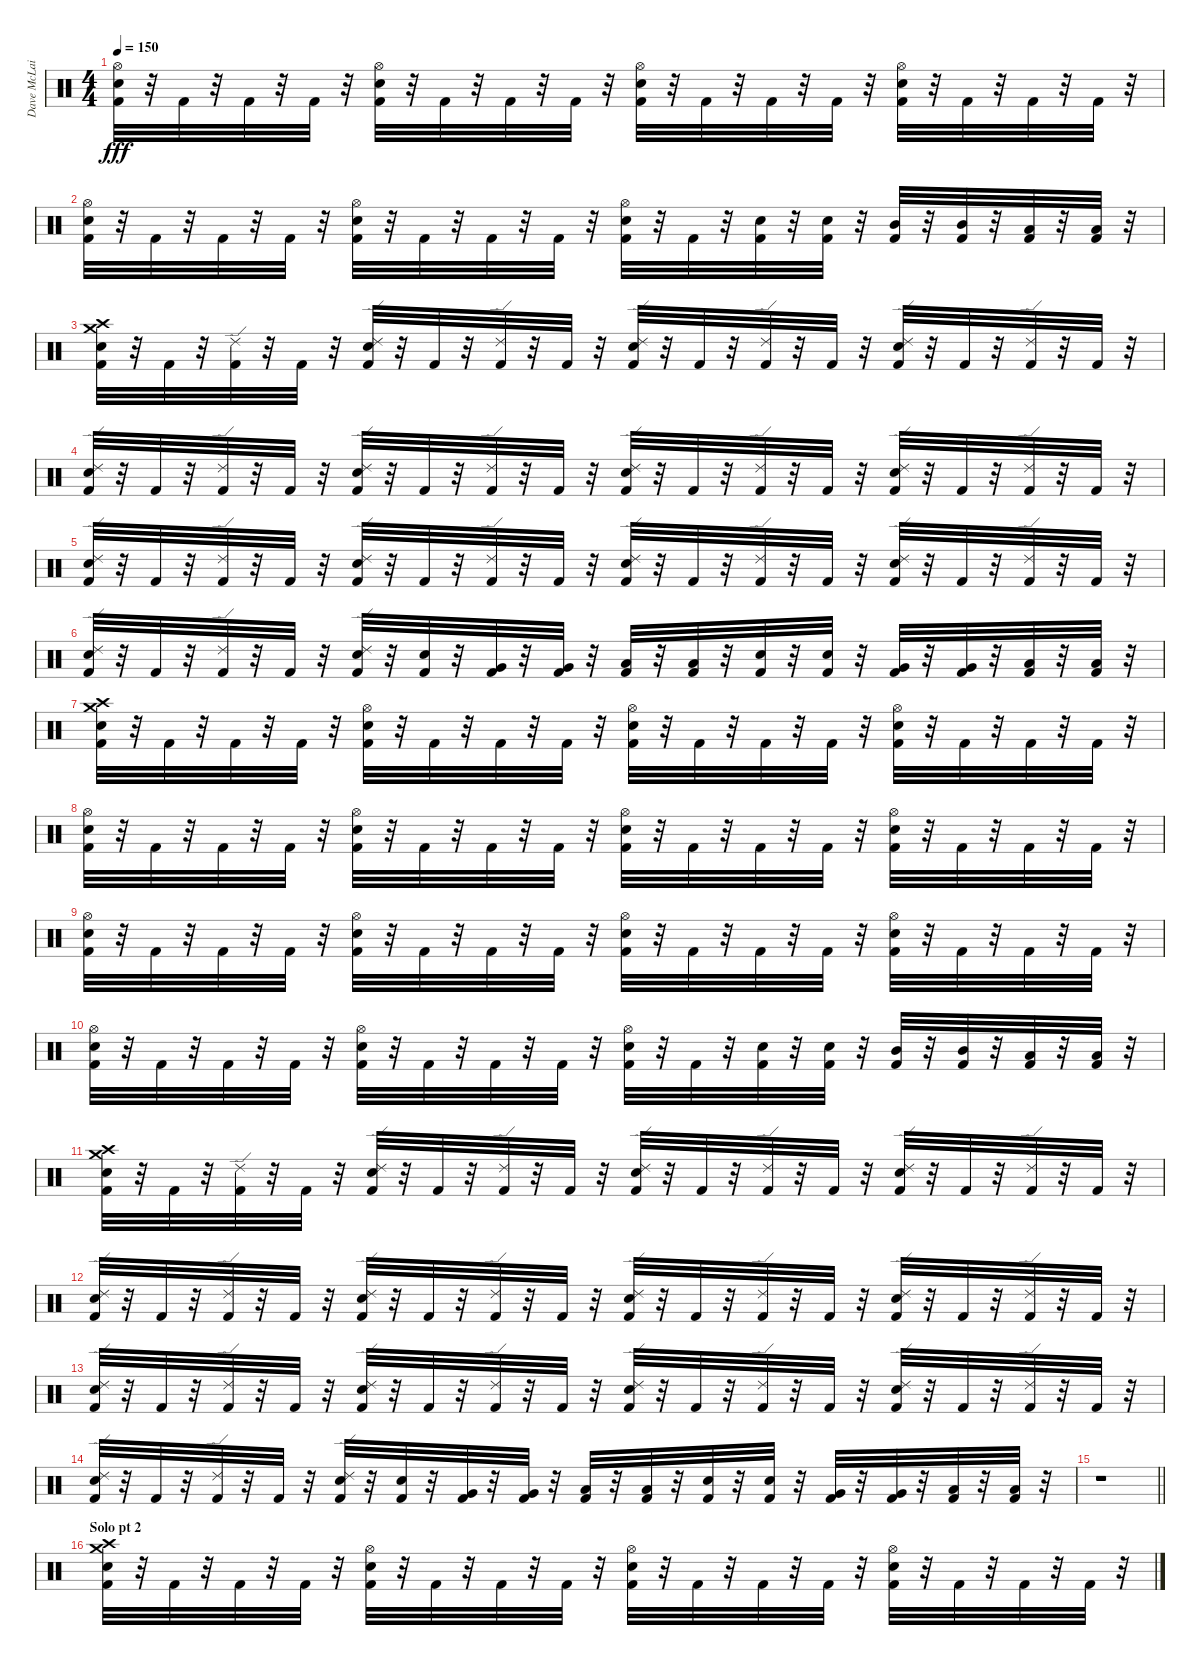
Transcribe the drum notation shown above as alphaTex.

\track ("Dave McLain" "Dave McLai") {instrument percussion}
\staff {score}
\articulation defaults
\ts (4 4)
\tempo 150
\clef neutral
\ks c
("Hi-Hat (open)" "Snare (hit) 2" "Kick (hit) 2").32{dy fff} r.32 "Kick (hit) 2".32 r.32 "Kick (hit) 2".32 r.32 "Kick (hit) 2".32 r.32 ("Hi-Hat (open)" "Snare (hit) 2" "Kick (hit) 2").32 r.32 "Kick (hit) 2".32 r.32 "Kick (hit) 2".32 r.32 "Kick (hit) 2".32 r.32 ("Hi-Hat (open)" "Snare (hit) 2" "Kick (hit) 2").32 r.32 "Kick (hit) 2".32 r.32 "Kick (hit) 2".32 r.32 "Kick (hit) 2".32 r.32 ("Hi-Hat (open)" "Snare (hit) 2" "Kick (hit) 2").32 r.32 "Kick (hit) 2".32 r.32 "Kick (hit) 2".32 r.32 "Kick (hit) 2".32 r.32 |
("Hi-Hat (open)" "Snare (hit) 2" "Kick (hit) 2").32 r.32 "Kick (hit) 2".32 r.32 "Kick (hit) 2".32 r.32 "Kick (hit) 2".32 r.32 ("Hi-Hat (open)" "Snare (hit) 2" "Kick (hit) 2").32 r.32 "Kick (hit) 2".32 r.32 "Kick (hit) 2".32 r.32 "Kick (hit) 2".32 r.32 ("Hi-Hat (open)" "Snare (hit) 2" "Kick (hit) 2").32 r.32 "Kick (hit) 2".32 r.32 ("Snare (hit) 2" "Kick (hit) 2").32 r.32 ("Snare (hit) 2" "Kick (hit) 2").32 r.32 ("Mid Tom (hit)" "Kick (hit) 2").32 r.32 ("Mid Tom (hit)" "Kick (hit) 2").32 r.32 ("Low Tom (hit)" "Kick (hit) 2").32 r.32 ("Low Tom (hit)" "Kick (hit) 2").32 r.32 |
("Crash high (hit)" "Crash medium (hit)" "Snare (hit) 2" "Kick (hit) 2").32 r.32 "Kick (hit) 2".32 r.32 ("Ride (edge) 2" "Kick (hit) 2").32 r.32 "Kick (hit) 2".32 r.32 ("Ride (edge) 2" "Snare (hit) 2" "Kick (hit) 2").32 r.32 "Kick (hit) 2".32 r.32 ("Ride (edge) 2" "Kick (hit) 2").32 r.32 "Kick (hit) 2".32 r.32 ("Ride (edge) 2" "Snare (hit) 2" "Kick (hit) 2").32 r.32 "Kick (hit) 2".32 r.32 ("Ride (edge) 2" "Kick (hit) 2").32 r.32 "Kick (hit) 2".32 r.32 ("Ride (edge) 2" "Snare (hit) 2" "Kick (hit) 2").32 r.32 "Kick (hit) 2".32 r.32 ("Ride (edge) 2" "Kick (hit) 2").32 r.32 "Kick (hit) 2".32 r.32 |
("Ride (edge) 2" "Snare (hit) 2" "Kick (hit) 2").32 r.32 "Kick (hit) 2".32 r.32 ("Ride (edge) 2" "Kick (hit) 2").32 r.32 "Kick (hit) 2".32 r.32 ("Ride (edge) 2" "Snare (hit) 2" "Kick (hit) 2").32 r.32 "Kick (hit) 2".32 r.32 ("Ride (edge) 2" "Kick (hit) 2").32 r.32 "Kick (hit) 2".32 r.32 ("Ride (edge) 2" "Snare (hit) 2" "Kick (hit) 2").32 r.32 "Kick (hit) 2".32 r.32 ("Ride (edge) 2" "Kick (hit) 2").32 r.32 "Kick (hit) 2".32 r.32 ("Ride (edge) 2" "Snare (hit) 2" "Kick (hit) 2").32 r.32 "Kick (hit) 2".32 r.32 ("Ride (edge) 2" "Kick (hit) 2").32 r.32 "Kick (hit) 2".32 r.32 |
("Ride (edge) 2" "Snare (hit) 2" "Kick (hit) 2").32 r.32 "Kick (hit) 2".32 r.32 ("Ride (edge) 2" "Kick (hit) 2").32 r.32 "Kick (hit) 2".32 r.32 ("Ride (edge) 2" "Snare (hit) 2" "Kick (hit) 2").32 r.32 "Kick (hit) 2".32 r.32 ("Ride (edge) 2" "Kick (hit) 2").32 r.32 "Kick (hit) 2".32 r.32 ("Ride (edge) 2" "Snare (hit) 2" "Kick (hit) 2").32 r.32 "Kick (hit) 2".32 r.32 ("Ride (edge) 2" "Kick (hit) 2").32 r.32 "Kick (hit) 2".32 r.32 ("Ride (edge) 2" "Snare (hit) 2" "Kick (hit) 2").32 r.32 "Kick (hit) 2".32 r.32 ("Ride (edge) 2" "Kick (hit) 2").32 r.32 "Kick (hit) 2".32 r.32 |
("Ride (edge) 2" "Snare (hit) 2" "Kick (hit) 2").32 r.32 "Kick (hit) 2".32 r.32 ("Ride (edge) 2" "Kick (hit) 2").32 r.32 "Kick (hit) 2".32 r.32 ("Ride (edge) 2" "Snare (hit) 2" "Kick (hit) 2").32 r.32 ("Snare (hit) 2" "Kick (hit) 2").32 r.32 ("Very Low Tom (hit)" "Kick (hit) 2").32 r.32 ("Very Low Tom (hit)" "Kick (hit) 2").32 r.32 ("Low Floor Tom (hit)" "Kick (hit) 2").32 r.32 ("Low Floor Tom (hit)" "Kick (hit) 2").32 r.32 ("Snare (hit) 2" "Kick (hit) 2").32 r.32 ("Snare (hit) 2" "Kick (hit) 2").32 r.32 ("Very Low Tom (hit)" "Kick (hit) 2").32 r.32 ("Very Low Tom (hit)" "Kick (hit) 2").32 r.32 ("Low Floor Tom (hit)" "Kick (hit) 2").32 r.32 ("Low Floor Tom (hit)" "Kick (hit) 2").32 r.32 |
("Crash high (hit)" "Crash medium (hit)" "Snare (hit) 2" "Kick (hit) 2").32 r.32 "Kick (hit) 2".32 r.32 "Kick (hit) 2".32 r.32 "Kick (hit) 2".32 r.32 ("Hi-Hat (open)" "Snare (hit) 2" "Kick (hit) 2").32 r.32 "Kick (hit) 2".32 r.32 "Kick (hit) 2".32 r.32 "Kick (hit) 2".32 r.32 ("Hi-Hat (open)" "Snare (hit) 2" "Kick (hit) 2").32 r.32 "Kick (hit) 2".32 r.32 "Kick (hit) 2".32 r.32 "Kick (hit) 2".32 r.32 ("Hi-Hat (open)" "Snare (hit) 2" "Kick (hit) 2").32 r.32 "Kick (hit) 2".32 r.32 "Kick (hit) 2".32 r.32 "Kick (hit) 2".32 r.32 |
("Hi-Hat (open)" "Snare (hit) 2" "Kick (hit) 2").32 r.32 "Kick (hit) 2".32 r.32 "Kick (hit) 2".32 r.32 "Kick (hit) 2".32 r.32 ("Hi-Hat (open)" "Snare (hit) 2" "Kick (hit) 2").32 r.32 "Kick (hit) 2".32 r.32 "Kick (hit) 2".32 r.32 "Kick (hit) 2".32 r.32 ("Hi-Hat (open)" "Snare (hit) 2" "Kick (hit) 2").32 r.32 "Kick (hit) 2".32 r.32 "Kick (hit) 2".32 r.32 "Kick (hit) 2".32 r.32 ("Hi-Hat (open)" "Snare (hit) 2" "Kick (hit) 2").32 r.32 "Kick (hit) 2".32 r.32 "Kick (hit) 2".32 r.32 "Kick (hit) 2".32 r.32 |
("Hi-Hat (open)" "Snare (hit) 2" "Kick (hit) 2").32 r.32 "Kick (hit) 2".32 r.32 "Kick (hit) 2".32 r.32 "Kick (hit) 2".32 r.32 ("Hi-Hat (open)" "Snare (hit) 2" "Kick (hit) 2").32 r.32 "Kick (hit) 2".32 r.32 "Kick (hit) 2".32 r.32 "Kick (hit) 2".32 r.32 ("Hi-Hat (open)" "Snare (hit) 2" "Kick (hit) 2").32 r.32 "Kick (hit) 2".32 r.32 "Kick (hit) 2".32 r.32 "Kick (hit) 2".32 r.32 ("Hi-Hat (open)" "Snare (hit) 2" "Kick (hit) 2").32 r.32 "Kick (hit) 2".32 r.32 "Kick (hit) 2".32 r.32 "Kick (hit) 2".32 r.32 |
("Hi-Hat (open)" "Snare (hit) 2" "Kick (hit) 2").32 r.32 "Kick (hit) 2".32 r.32 "Kick (hit) 2".32 r.32 "Kick (hit) 2".32 r.32 ("Hi-Hat (open)" "Snare (hit) 2" "Kick (hit) 2").32 r.32 "Kick (hit) 2".32 r.32 "Kick (hit) 2".32 r.32 "Kick (hit) 2".32 r.32 ("Hi-Hat (open)" "Snare (hit) 2" "Kick (hit) 2").32 r.32 "Kick (hit) 2".32 r.32 ("Snare (hit) 2" "Kick (hit) 2").32 r.32 ("Snare (hit) 2" "Kick (hit) 2").32 r.32 ("Mid Tom (hit)" "Kick (hit) 2").32 r.32 ("Mid Tom (hit)" "Kick (hit) 2").32 r.32 ("Low Tom (hit)" "Kick (hit) 2").32 r.32 ("Low Tom (hit)" "Kick (hit) 2").32 r.32 |
("Crash high (hit)" "Crash medium (hit)" "Snare (hit) 2" "Kick (hit) 2").32 r.32 "Kick (hit) 2".32 r.32 ("Ride (edge) 2" "Kick (hit) 2").32 r.32 "Kick (hit) 2".32 r.32 ("Ride (edge) 2" "Snare (hit) 2" "Kick (hit) 2").32 r.32 "Kick (hit) 2".32 r.32 ("Ride (edge) 2" "Kick (hit) 2").32 r.32 "Kick (hit) 2".32 r.32 ("Ride (edge) 2" "Snare (hit) 2" "Kick (hit) 2").32 r.32 "Kick (hit) 2".32 r.32 ("Ride (edge) 2" "Kick (hit) 2").32 r.32 "Kick (hit) 2".32 r.32 ("Ride (edge) 2" "Snare (hit) 2" "Kick (hit) 2").32 r.32 "Kick (hit) 2".32 r.32 ("Ride (edge) 2" "Kick (hit) 2").32 r.32 "Kick (hit) 2".32 r.32 |
("Ride (edge) 2" "Snare (hit) 2" "Kick (hit) 2").32 r.32 "Kick (hit) 2".32 r.32 ("Ride (edge) 2" "Kick (hit) 2").32 r.32 "Kick (hit) 2".32 r.32 ("Ride (edge) 2" "Snare (hit) 2" "Kick (hit) 2").32 r.32 "Kick (hit) 2".32 r.32 ("Ride (edge) 2" "Kick (hit) 2").32 r.32 "Kick (hit) 2".32 r.32 ("Ride (edge) 2" "Snare (hit) 2" "Kick (hit) 2").32 r.32 "Kick (hit) 2".32 r.32 ("Ride (edge) 2" "Kick (hit) 2").32 r.32 "Kick (hit) 2".32 r.32 ("Ride (edge) 2" "Snare (hit) 2" "Kick (hit) 2").32 r.32 "Kick (hit) 2".32 r.32 ("Ride (edge) 2" "Kick (hit) 2").32 r.32 "Kick (hit) 2".32 r.32 |
("Ride (edge) 2" "Snare (hit) 2" "Kick (hit) 2").32 r.32 "Kick (hit) 2".32 r.32 ("Ride (edge) 2" "Kick (hit) 2").32 r.32 "Kick (hit) 2".32 r.32 ("Ride (edge) 2" "Snare (hit) 2" "Kick (hit) 2").32 r.32 "Kick (hit) 2".32 r.32 ("Ride (edge) 2" "Kick (hit) 2").32 r.32 "Kick (hit) 2".32 r.32 ("Ride (edge) 2" "Snare (hit) 2" "Kick (hit) 2").32 r.32 "Kick (hit) 2".32 r.32 ("Ride (edge) 2" "Kick (hit) 2").32 r.32 "Kick (hit) 2".32 r.32 ("Ride (edge) 2" "Snare (hit) 2" "Kick (hit) 2").32 r.32 "Kick (hit) 2".32 r.32 ("Ride (edge) 2" "Kick (hit) 2").32 r.32 "Kick (hit) 2".32 r.32 |
("Ride (edge) 2" "Snare (hit) 2" "Kick (hit) 2").32 r.32 "Kick (hit) 2".32 r.32 ("Ride (edge) 2" "Kick (hit) 2").32 r.32 "Kick (hit) 2".32 r.32 ("Ride (edge) 2" "Snare (hit) 2" "Kick (hit) 2").32 r.32 ("Snare (hit) 2" "Kick (hit) 2").32 r.32 ("Very Low Tom (hit)" "Kick (hit) 2").32 r.32 ("Very Low Tom (hit)" "Kick (hit) 2").32 r.32 ("Low Floor Tom (hit)" "Kick (hit) 2").32 r.32 ("Low Floor Tom (hit)" "Kick (hit) 2").32 r.32 ("Snare (hit) 2" "Kick (hit) 2").32 r.32 ("Snare (hit) 2" "Kick (hit) 2").32 r.32 ("Very Low Tom (hit)" "Kick (hit) 2").32 r.32 ("Very Low Tom (hit)" "Kick (hit) 2").32 r.32 ("Low Floor Tom (hit)" "Kick (hit) 2").32 r.32 ("Low Floor Tom (hit)" "Kick (hit) 2").32 r.32 |
\barLineRight lightlight
r.1 |
\section ("" "Solo pt 2")
("Snare (hit) 2" "Crash high (hit)" "Crash medium (hit)" "Kick (hit) 2").32 r.32 "Kick (hit) 2".32 r.32 "Kick (hit) 2".32 r.32 "Kick (hit) 2".32 r.32 ("Hi-Hat (open)" "Snare (hit) 2" "Kick (hit) 2").32 r.32 "Kick (hit) 2".32 r.32 "Kick (hit) 2".32 r.32 "Kick (hit) 2".32 r.32 ("Hi-Hat (open)" "Snare (hit) 2" "Kick (hit) 2").32 r.32 "Kick (hit) 2".32 r.32 "Kick (hit) 2".32 r.32 "Kick (hit) 2".32 r.32 ("Hi-Hat (open)" "Snare (hit) 2" "Kick (hit) 2").32 r.32 "Kick (hit) 2".32 r.32 "Kick (hit) 2".32 r.32 "Kick (hit) 2".32 r.32
